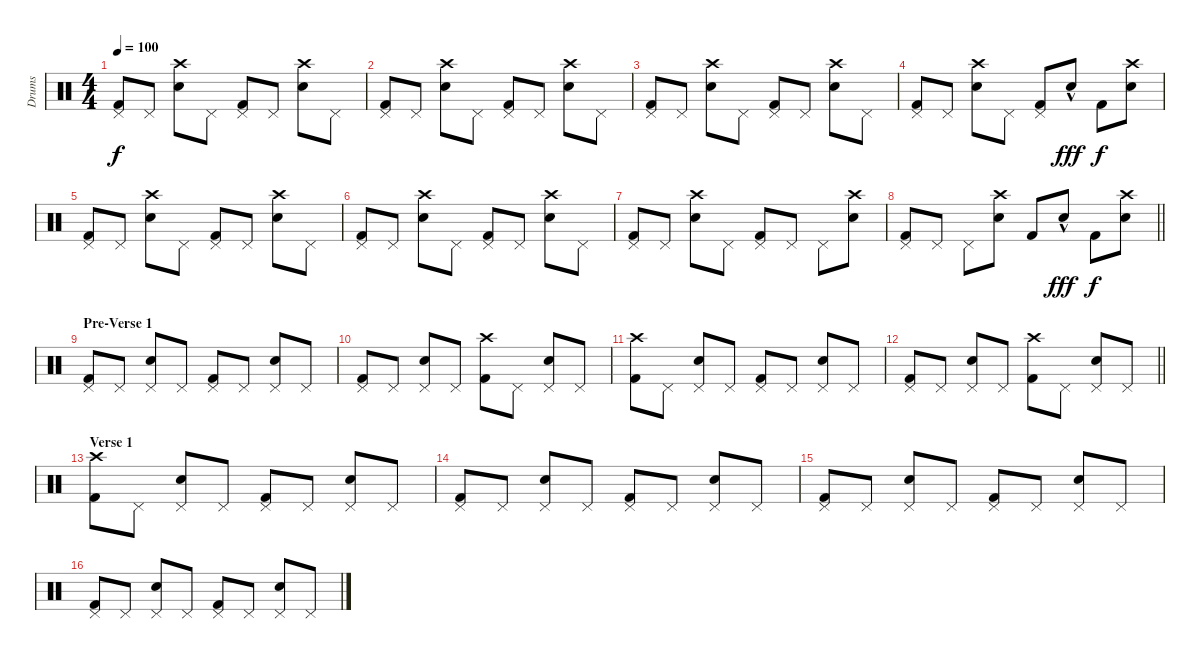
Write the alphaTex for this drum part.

\track ("Drums" "Drums") {instrument percussion}
\staff {score}
\articulation defaults
\ts (4 4)
\tempo 100
\clef neutral
\ks c
("Pedal Hi-Hat (hit)" "Kick (hit) 2").8{dy f} "Pedal Hi-Hat (hit)".8 ("Crash high (hit)" "Electric Snare (hit)").8 "Pedal Hi-Hat (hit)".8 ("Pedal Hi-Hat (hit)" "Kick (hit) 2").8 "Pedal Hi-Hat (hit)".8 ("Crash high (hit)" "Electric Snare (hit)").8 "Pedal Hi-Hat (hit)".8 |
("Pedal Hi-Hat (hit)" "Kick (hit) 2").8 "Pedal Hi-Hat (hit)".8 ("Crash high (hit)" "Electric Snare (hit)").8 "Pedal Hi-Hat (hit)".8 ("Pedal Hi-Hat (hit)" "Kick (hit) 2").8 "Pedal Hi-Hat (hit)".8 ("Crash high (hit)" "Electric Snare (hit)").8 "Pedal Hi-Hat (hit)".8 |
("Pedal Hi-Hat (hit)" "Kick (hit) 2").8 "Pedal Hi-Hat (hit)".8 ("Crash high (hit)" "Electric Snare (hit)").8 "Pedal Hi-Hat (hit)".8 ("Pedal Hi-Hat (hit)" "Kick (hit) 2").8 "Pedal Hi-Hat (hit)".8 ("Crash high (hit)" "Electric Snare (hit)").8 "Pedal Hi-Hat (hit)".8 |
("Pedal Hi-Hat (hit)" "Kick (hit) 2").8 "Pedal Hi-Hat (hit)".8 ("Crash high (hit)" "Electric Snare (hit)").8 "Pedal Hi-Hat (hit)".8 ("Pedal Hi-Hat (hit)" "Kick (hit) 2").8 "Electric Snare (hit)"{hac}.8{dy fff} "Kick (hit) 2".8{dy f} ("Crash high (hit)" "Electric Snare (hit)").8 |
("Pedal Hi-Hat (hit)" "Kick (hit) 2").8 "Pedal Hi-Hat (hit)".8 ("Crash high (hit)" "Electric Snare (hit)").8 "Pedal Hi-Hat (hit)".8 ("Pedal Hi-Hat (hit)" "Kick (hit) 2").8 "Pedal Hi-Hat (hit)".8 ("Crash high (hit)" "Electric Snare (hit)").8 "Pedal Hi-Hat (hit)".8 |
("Pedal Hi-Hat (hit)" "Kick (hit) 2").8 "Pedal Hi-Hat (hit)".8 ("Crash high (hit)" "Electric Snare (hit)").8 "Pedal Hi-Hat (hit)".8 ("Pedal Hi-Hat (hit)" "Kick (hit) 2").8 "Pedal Hi-Hat (hit)".8 ("Crash high (hit)" "Electric Snare (hit)").8 "Pedal Hi-Hat (hit)".8 |
("Pedal Hi-Hat (hit)" "Kick (hit) 2").8 "Pedal Hi-Hat (hit)".8 ("Crash high (hit)" "Electric Snare (hit)").8 "Pedal Hi-Hat (hit)".8 ("Pedal Hi-Hat (hit)" "Kick (hit) 2").8 "Pedal Hi-Hat (hit)".8 "Pedal Hi-Hat (hit)".8 ("Crash high (hit)" "Electric Snare (hit)").8 |
\barLineRight lightlight
("Pedal Hi-Hat (hit)" "Kick (hit) 2").8 "Pedal Hi-Hat (hit)".8 "Pedal Hi-Hat (hit)".8 ("Crash high (hit)" "Electric Snare (hit)").8 "Kick (hit) 2".8 "Electric Snare (hit)"{hac}.8{dy fff} "Kick (hit) 2".8{dy f} ("Crash high (hit)" "Electric Snare (hit)").8 |
\section ("" "Pre-Verse 1")
("Pedal Hi-Hat (hit)" "Kick (hit) 2").8 "Pedal Hi-Hat (hit)".8 ("Pedal Hi-Hat (hit)" "Electric Snare (hit)").8 "Pedal Hi-Hat (hit)".8 ("Pedal Hi-Hat (hit)" "Kick (hit) 2").8 "Pedal Hi-Hat (hit)".8 ("Pedal Hi-Hat (hit)" "Electric Snare (hit)").8 "Pedal Hi-Hat (hit)".8 |
("Pedal Hi-Hat (hit)" "Kick (hit) 2").8 "Pedal Hi-Hat (hit)".8 ("Pedal Hi-Hat (hit)" "Electric Snare (hit)").8 "Pedal Hi-Hat (hit)".8 ("Crash high (hit)" "Kick (hit) 2").8 "Pedal Hi-Hat (hit)".8 ("Pedal Hi-Hat (hit)" "Electric Snare (hit)").8 "Pedal Hi-Hat (hit)".8 |
("Crash high (hit)" "Kick (hit) 2").8 "Pedal Hi-Hat (hit)".8 ("Pedal Hi-Hat (hit)" "Electric Snare (hit)").8 "Pedal Hi-Hat (hit)".8 ("Pedal Hi-Hat (hit)" "Kick (hit) 2").8 "Pedal Hi-Hat (hit)".8 ("Pedal Hi-Hat (hit)" "Electric Snare (hit)").8 "Pedal Hi-Hat (hit)".8 |
\barLineRight lightlight
("Pedal Hi-Hat (hit)" "Kick (hit) 2").8 "Pedal Hi-Hat (hit)".8 ("Pedal Hi-Hat (hit)" "Electric Snare (hit)").8 "Pedal Hi-Hat (hit)".8 ("Crash high (hit)" "Kick (hit) 2").8 "Pedal Hi-Hat (hit)".8 ("Pedal Hi-Hat (hit)" "Electric Snare (hit)").8 "Pedal Hi-Hat (hit)".8 |
\section ("" "Verse 1")
("Crash high (hit)" "Kick (hit) 2").8 "Pedal Hi-Hat (hit)".8 ("Pedal Hi-Hat (hit)" "Electric Snare (hit)").8 "Pedal Hi-Hat (hit)".8 ("Pedal Hi-Hat (hit)" "Kick (hit) 2").8 "Pedal Hi-Hat (hit)".8 ("Pedal Hi-Hat (hit)" "Electric Snare (hit)").8 "Pedal Hi-Hat (hit)".8 |
("Pedal Hi-Hat (hit)" "Kick (hit) 2").8 "Pedal Hi-Hat (hit)".8 ("Pedal Hi-Hat (hit)" "Electric Snare (hit)").8 "Pedal Hi-Hat (hit)".8 ("Pedal Hi-Hat (hit)" "Kick (hit) 2").8 "Pedal Hi-Hat (hit)".8 ("Pedal Hi-Hat (hit)" "Electric Snare (hit)").8 "Pedal Hi-Hat (hit)".8 |
("Pedal Hi-Hat (hit)" "Kick (hit) 2").8 "Pedal Hi-Hat (hit)".8 ("Pedal Hi-Hat (hit)" "Electric Snare (hit)").8 "Pedal Hi-Hat (hit)".8 ("Pedal Hi-Hat (hit)" "Kick (hit) 2").8 "Pedal Hi-Hat (hit)".8 ("Pedal Hi-Hat (hit)" "Electric Snare (hit)").8 "Pedal Hi-Hat (hit)".8 |
("Pedal Hi-Hat (hit)" "Kick (hit) 2").8 "Pedal Hi-Hat (hit)".8 ("Pedal Hi-Hat (hit)" "Electric Snare (hit)").8 "Pedal Hi-Hat (hit)".8 ("Pedal Hi-Hat (hit)" "Kick (hit) 2").8 "Pedal Hi-Hat (hit)".8 ("Pedal Hi-Hat (hit)" "Electric Snare (hit)").8 "Pedal Hi-Hat (hit)".8
